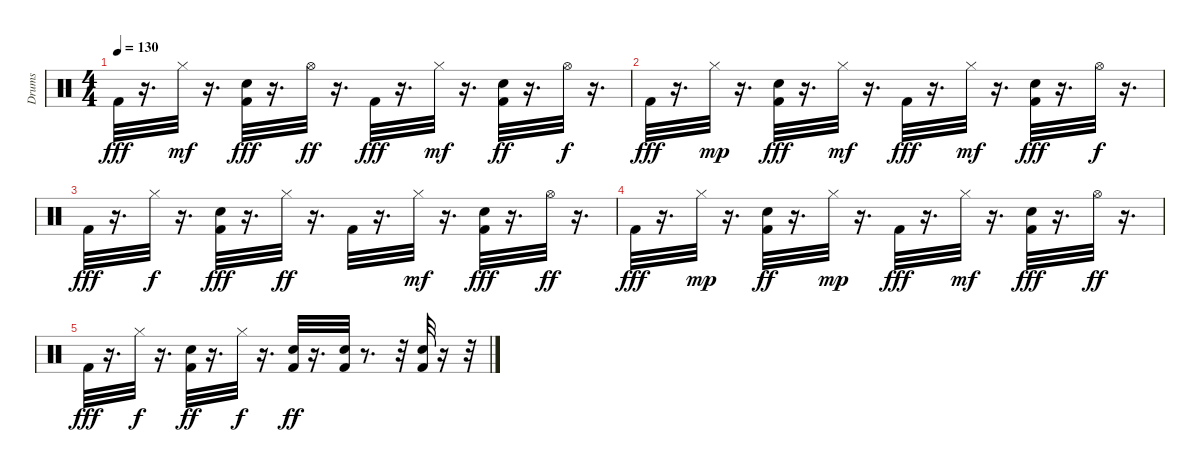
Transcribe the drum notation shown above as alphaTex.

\track ("Drums               " "Drums     ") {instrument percussion}
\staff {score}
\articulation defaults
\ts (4 4)
\tempo 130
\clef neutral
\ks c "Kick (hit) 2".32{dy fff}
r.16{d} "Hi-Hat (closed)".32{dy mf} r.16{d} ("Kick (hit) 2" "Snare (hit) 2").32{dy fff} r.16{d} "Hi-Hat (open)".32{dy ff} r.16{d} "Kick (hit) 2".32{dy fff} r.16{d} "Hi-Hat (closed)".32{dy mf} r.16{d} ("Kick (hit) 2" "Snare (hit) 2").32{dy ff} r.16{d} "Hi-Hat (open)".32{dy f} r.16{d} |
"Kick (hit) 2".32{dy fff} r.16{d} "Hi-Hat (closed)".32{dy mp} r.16{d} ("Kick (hit) 2" "Snare (hit) 2").32{dy fff} r.16{d} "Hi-Hat (closed)".32{dy mf} r.16{d} "Kick (hit) 2".32{dy fff} r.16{d} "Hi-Hat (closed)".32{dy mf} r.16{d} ("Kick (hit) 2" "Snare (hit) 2").32{dy fff} r.16{d} "Hi-Hat (open)".32{dy f} r.16{d} |
"Kick (hit) 2".32{dy fff} r.16{d} "Hi-Hat (closed)".32{dy f} r.16{d} ("Kick (hit) 2" "Snare (hit) 2").32{dy fff} r.16{d} "Hi-Hat (closed)".32{dy ff} r.16{d} "Kick (hit) 2".32 r.16{d} "Hi-Hat (closed)".32{dy mf} r.16{d} ("Kick (hit) 2" "Snare (hit) 2").32{dy fff} r.16{d} "Hi-Hat (open)".32{dy ff} r.16{d} |
"Kick (hit) 2".32{dy fff} r.16{d} "Hi-Hat (closed)".32{dy mp} r.16{d} ("Kick (hit) 2" "Snare (hit) 2").32{dy ff} r.16{d} "Hi-Hat (closed)".32{dy mp} r.16{d} "Kick (hit) 2".32{dy fff} r.16{d} "Hi-Hat (closed)".32{dy mf} r.16{d} ("Kick (hit) 2" "Snare (hit) 2").32{dy fff} r.16{d} "Hi-Hat (open)".32{dy ff} r.16{d} |
"Kick (hit) 2".32{dy fff} r.16{d} "Hi-Hat (closed)".32{dy f} r.16{d} ("Kick (hit) 2" "Snare (hit) 2").32{dy ff} r.16{d} "Hi-Hat (closed)".32{dy f} r.16{d} ("Kick (hit) 2" "Snare (hit) 2").32{dy ff} r.16{d} ("Kick (hit) 2" "Snare (hit) 2").32 r.8{d} r.32 ("Kick (hit) 2" "Snare (hit) 2").32 r.16 r.32
